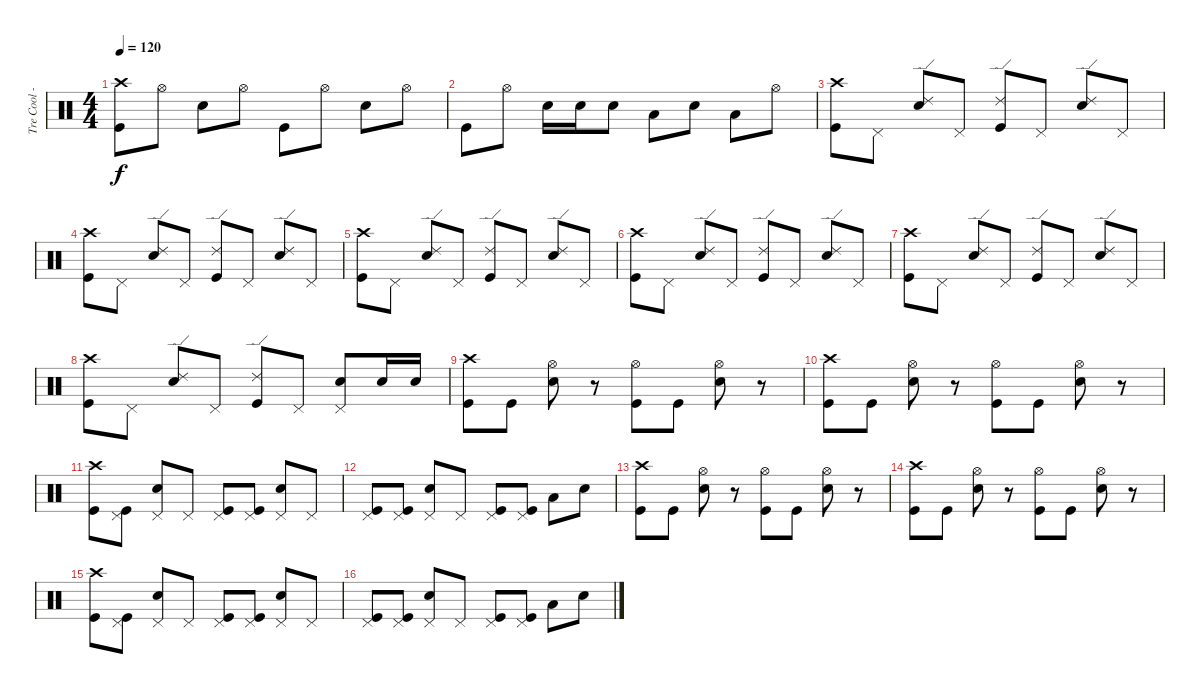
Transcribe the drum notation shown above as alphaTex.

\track ("Tre Cool - Percussion" "Tre Cool -") {instrument percussion}
\staff {score}
\articulation defaults
\ts (4 4)
\tempo 120
\clef neutral
\ks c
("Crash high (hit)" "Kick (hit)").8{dy f} "Hi-Hat (open)".8 "Electric Snare (hit)".8 "Hi-Hat (open)".8 "Kick (hit)".8 "Hi-Hat (open)".8 "Electric Snare (hit)".8 "Hi-Hat (open)".8 |
"Kick (hit)".8 "Hi-Hat (open)".8 "Electric Snare (hit)".16 "Electric Snare (hit)".16 "Electric Snare (hit)".8 "Low Tom (hit)".8 "Electric Snare (hit)".8 "Low Tom (hit)".8 "Hi-Hat (open)".8 |
("Crash high (hit)" "Kick (hit)").8 "Pedal Hi-Hat (hit)".8 ("Ride (edge) 2" "Electric Snare (hit)").8 "Pedal Hi-Hat (hit)".8 ("Ride (edge) 2" "Kick (hit)").8 "Pedal Hi-Hat (hit)".8 ("Ride (edge) 2" "Electric Snare (hit)").8 "Pedal Hi-Hat (hit)".8 |
("Crash high (hit)" "Kick (hit)").8 "Pedal Hi-Hat (hit)".8 ("Ride (edge) 2" "Electric Snare (hit)").8 "Pedal Hi-Hat (hit)".8 ("Ride (edge) 2" "Kick (hit)").8 "Pedal Hi-Hat (hit)".8 ("Ride (edge) 2" "Electric Snare (hit)").8 "Pedal Hi-Hat (hit)".8 |
("Crash high (hit)" "Kick (hit)").8 "Pedal Hi-Hat (hit)".8 ("Ride (edge) 2" "Electric Snare (hit)").8 "Pedal Hi-Hat (hit)".8 ("Ride (edge) 2" "Kick (hit)").8 "Pedal Hi-Hat (hit)".8 ("Ride (edge) 2" "Electric Snare (hit)").8 "Pedal Hi-Hat (hit)".8 |
("Crash high (hit)" "Kick (hit)").8 "Pedal Hi-Hat (hit)".8 ("Ride (edge) 2" "Electric Snare (hit)").8 "Pedal Hi-Hat (hit)".8 ("Ride (edge) 2" "Kick (hit)").8 "Pedal Hi-Hat (hit)".8 ("Ride (edge) 2" "Electric Snare (hit)").8 "Pedal Hi-Hat (hit)".8 |
("Crash high (hit)" "Kick (hit)").8 "Pedal Hi-Hat (hit)".8 ("Ride (edge) 2" "Electric Snare (hit)").8 "Pedal Hi-Hat (hit)".8 ("Ride (edge) 2" "Kick (hit)").8 "Pedal Hi-Hat (hit)".8 ("Ride (edge) 2" "Electric Snare (hit)").8 "Pedal Hi-Hat (hit)".8 |
("Crash high (hit)" "Kick (hit)").8 "Pedal Hi-Hat (hit)".8 ("Ride (edge) 2" "Electric Snare (hit)").8 "Pedal Hi-Hat (hit)".8 ("Ride (edge) 2" "Kick (hit)").8 "Pedal Hi-Hat (hit)".8 ("Pedal Hi-Hat (hit)" "Electric Snare (hit)").8 "Electric Snare (hit)".16 "Electric Snare (hit)".16 |
("Crash high (hit)" "Kick (hit)").8 "Kick (hit)".8 ("Hi-Hat (open)" "Electric Snare (hit)").8 r.8 ("Hi-Hat (open)" "Kick (hit)").8 "Kick (hit)".8 ("Hi-Hat (open)" "Electric Snare (hit)").8 r.8 |
("Crash high (hit)" "Kick (hit)").8 "Kick (hit)".8 ("Hi-Hat (open)" "Electric Snare (hit)").8 r.8 ("Hi-Hat (open)" "Kick (hit)").8 "Kick (hit)".8 ("Hi-Hat (open)" "Electric Snare (hit)").8 r.8 |
("Crash high (hit)" "Kick (hit)").8 ("Pedal Hi-Hat (hit)" "Kick (hit)").8 ("Pedal Hi-Hat (hit)" "Electric Snare (hit)").8 "Pedal Hi-Hat (hit)".8 ("Pedal Hi-Hat (hit)" "Kick (hit)").8 ("Pedal Hi-Hat (hit)" "Kick (hit)").8 ("Pedal Hi-Hat (hit)" "Electric Snare (hit)").8 "Pedal Hi-Hat (hit)".8 |
("Pedal Hi-Hat (hit)" "Kick (hit)").8 ("Pedal Hi-Hat (hit)" "Kick (hit)").8 ("Pedal Hi-Hat (hit)" "Electric Snare (hit)").8 "Pedal Hi-Hat (hit)".8 ("Pedal Hi-Hat (hit)" "Kick (hit)").8 ("Pedal Hi-Hat (hit)" "Kick (hit)").8 "Low Tom (hit)".8 "Electric Snare (hit)".8 |
("Crash high (hit)" "Kick (hit)").8 "Kick (hit)".8 ("Hi-Hat (open)" "Electric Snare (hit)").8 r.8 ("Hi-Hat (open)" "Kick (hit)").8 "Kick (hit)".8 ("Hi-Hat (open)" "Electric Snare (hit)").8 r.8 |
("Crash high (hit)" "Kick (hit)").8 "Kick (hit)".8 ("Hi-Hat (open)" "Electric Snare (hit)").8 r.8 ("Hi-Hat (open)" "Kick (hit)").8 "Kick (hit)".8 ("Hi-Hat (open)" "Electric Snare (hit)").8 r.8 |
("Crash high (hit)" "Kick (hit)").8 ("Pedal Hi-Hat (hit)" "Kick (hit)").8 ("Pedal Hi-Hat (hit)" "Electric Snare (hit)").8 "Pedal Hi-Hat (hit)".8 ("Pedal Hi-Hat (hit)" "Kick (hit)").8 ("Pedal Hi-Hat (hit)" "Kick (hit)").8 ("Pedal Hi-Hat (hit)" "Electric Snare (hit)").8 "Pedal Hi-Hat (hit)".8 |
("Pedal Hi-Hat (hit)" "Kick (hit)").8 ("Pedal Hi-Hat (hit)" "Kick (hit)").8 ("Pedal Hi-Hat (hit)" "Electric Snare (hit)").8 "Pedal Hi-Hat (hit)".8 ("Pedal Hi-Hat (hit)" "Kick (hit)").8 ("Pedal Hi-Hat (hit)" "Kick (hit)").8 "Low Tom (hit)".8 "Electric Snare (hit)".8
